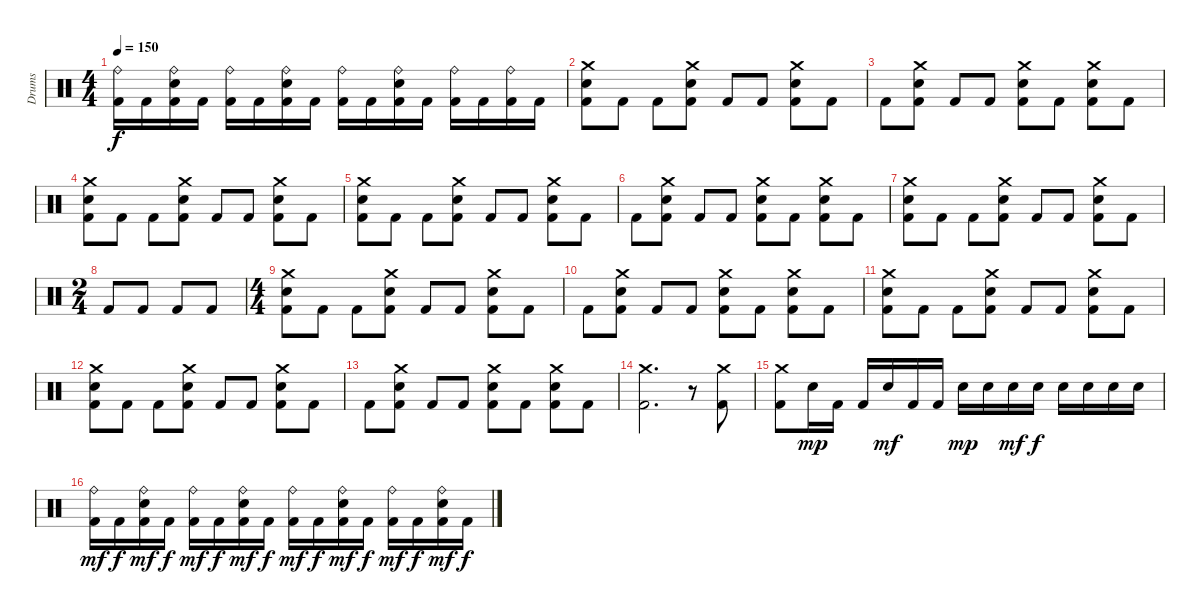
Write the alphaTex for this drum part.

\track ("Drums" "Drums") {instrument percussion}
\staff {score}
\articulation defaults
\ts (4 4)
\tempo 150
\clef neutral
\ks c
("Kick (hit) 2" "Ride (bell)").16{dy f} "Kick (hit) 2".16 ("Kick (hit) 2" "Snare (hit) 2" "Ride (bell)").16 "Kick (hit) 2".16 ("Kick (hit) 2" "Ride (bell)").16 "Kick (hit) 2".16 ("Kick (hit) 2" "Snare (hit) 2" "Ride (bell)").16 "Kick (hit) 2".16 ("Kick (hit) 2" "Ride (bell)").16 "Kick (hit) 2".16 ("Kick (hit) 2" "Snare (hit) 2" "Ride (bell)").16 "Kick (hit) 2".16 ("Kick (hit) 2" "Ride (bell)").16 "Kick (hit) 2".16 ("Kick (hit) 2" "Ride (bell)").16 "Kick (hit) 2".16 |
("Kick (hit) 2" "Snare (hit) 2" "Crash medium (hit)").8 "Kick (hit) 2".8 "Kick (hit) 2".8 ("Kick (hit) 2" "Snare (hit) 2" "Crash medium (hit)").8 "Kick (hit) 2".8 "Kick (hit) 2".8 ("Kick (hit) 2" "Snare (hit) 2" "Crash medium (hit)").8 "Kick (hit) 2".8 |
"Kick (hit) 2".8 ("Kick (hit) 2" "Snare (hit) 2" "Crash medium (hit)").8 "Kick (hit) 2".8 "Kick (hit) 2".8 ("Kick (hit) 2" "Snare (hit) 2" "Crash medium (hit)").8 "Kick (hit) 2".8 ("Kick (hit) 2" "Snare (hit) 2" "Crash medium (hit)").8 "Kick (hit) 2".8 |
("Kick (hit) 2" "Snare (hit) 2" "Crash medium (hit)").8 "Kick (hit) 2".8 "Kick (hit) 2".8 ("Kick (hit) 2" "Snare (hit) 2" "Crash medium (hit)").8 "Kick (hit) 2".8 "Kick (hit) 2".8 ("Kick (hit) 2" "Snare (hit) 2" "Crash medium (hit)").8 "Kick (hit) 2".8 |
("Kick (hit) 2" "Snare (hit) 2" "Crash medium (hit)").8 "Kick (hit) 2".8 "Kick (hit) 2".8 ("Kick (hit) 2" "Snare (hit) 2" "Crash medium (hit)").8 "Kick (hit) 2".8 "Kick (hit) 2".8 ("Kick (hit) 2" "Snare (hit) 2" "Crash medium (hit)").8 "Kick (hit) 2".8 |
"Kick (hit) 2".8 ("Kick (hit) 2" "Snare (hit) 2" "Crash medium (hit)").8 "Kick (hit) 2".8 "Kick (hit) 2".8 ("Kick (hit) 2" "Snare (hit) 2" "Crash medium (hit)").8 "Kick (hit) 2".8 ("Kick (hit) 2" "Snare (hit) 2" "Crash medium (hit)").8 "Kick (hit) 2".8 |
("Kick (hit) 2" "Snare (hit) 2" "Crash medium (hit)").8 "Kick (hit) 2".8 "Kick (hit) 2".8 ("Kick (hit) 2" "Snare (hit) 2" "Crash medium (hit)").8 "Kick (hit) 2".8 "Kick (hit) 2".8 ("Kick (hit) 2" "Snare (hit) 2" "Crash medium (hit)").8 "Kick (hit) 2".8 |
\ts (2 4)
"Kick (hit) 2".8 "Kick (hit) 2".8 "Kick (hit) 2".8 "Kick (hit) 2".8 |
\ts (4 4)
("Kick (hit) 2" "Snare (hit) 2" "Crash medium (hit)").8 "Kick (hit) 2".8 "Kick (hit) 2".8 ("Kick (hit) 2" "Snare (hit) 2" "Crash medium (hit)").8 "Kick (hit) 2".8 "Kick (hit) 2".8 ("Kick (hit) 2" "Snare (hit) 2" "Crash medium (hit)").8 "Kick (hit) 2".8 |
"Kick (hit) 2".8 ("Kick (hit) 2" "Snare (hit) 2" "Crash medium (hit)").8 "Kick (hit) 2".8 "Kick (hit) 2".8 ("Kick (hit) 2" "Snare (hit) 2" "Crash medium (hit)").8 "Kick (hit) 2".8 ("Kick (hit) 2" "Snare (hit) 2" "Crash medium (hit)").8 "Kick (hit) 2".8 |
("Kick (hit) 2" "Snare (hit) 2" "Crash medium (hit)").8 "Kick (hit) 2".8 "Kick (hit) 2".8 ("Kick (hit) 2" "Snare (hit) 2" "Crash medium (hit)").8 "Kick (hit) 2".8 "Kick (hit) 2".8 ("Kick (hit) 2" "Snare (hit) 2" "Crash medium (hit)").8 "Kick (hit) 2".8 |
("Kick (hit) 2" "Snare (hit) 2" "Crash medium (hit)").8 "Kick (hit) 2".8 "Kick (hit) 2".8 ("Kick (hit) 2" "Snare (hit) 2" "Crash medium (hit)").8 "Kick (hit) 2".8 "Kick (hit) 2".8 ("Kick (hit) 2" "Snare (hit) 2" "Crash medium (hit)").8 "Kick (hit) 2".8 |
"Kick (hit) 2".8 ("Kick (hit) 2" "Snare (hit) 2" "Crash medium (hit)").8 "Kick (hit) 2".8 "Kick (hit) 2".8 ("Kick (hit) 2" "Snare (hit) 2" "Crash medium (hit)").8 "Kick (hit) 2".8 ("Kick (hit) 2" "Snare (hit) 2" "Crash medium (hit)").8 "Kick (hit) 2".8 |
("Kick (hit) 2" "Crash medium (hit)").2{d} r.8 ("Kick (hit) 2" "Crash medium (hit)").8 |
("Kick (hit) 2" "Crash medium (hit)").8 "Snare (hit) 2".16{dy mp} "Kick (hit) 2".16 "Kick (hit) 2".16 "Snare (hit) 2".16{dy mf} "Kick (hit) 2".16 "Kick (hit) 2".16 "Snare (hit) 2".16{dy mp} "Snare (hit) 2".16 "Snare (hit) 2".16{dy mf} "Snare (hit) 2".16{dy f} "Snare (hit) 2".16 "Snare (hit) 2".16 "Snare (hit) 2".16 "Snare (hit) 2".16 |
("Kick (hit) 2" "Ride (bell)").16{dy mf} "Kick (hit) 2".16{dy f} ("Kick (hit) 2" "Snare (hit) 2" "Ride (bell)").16{dy mf} "Kick (hit) 2".16{dy f} ("Kick (hit) 2" "Ride (bell)").16{dy mf} "Kick (hit) 2".16{dy f} ("Kick (hit) 2" "Snare (hit) 2" "Ride (bell)").16{dy mf} "Kick (hit) 2".16{dy f} ("Kick (hit) 2" "Ride (bell)").16{dy mf} "Kick (hit) 2".16{dy f} ("Kick (hit) 2" "Snare (hit) 2" "Ride (bell)").16{dy mf} "Kick (hit) 2".16{dy f} ("Kick (hit) 2" "Ride (bell)").16{dy mf} "Kick (hit) 2".16{dy f} ("Kick (hit) 2" "Snare (hit) 2" "Ride (bell)").16{dy mf} "Kick (hit) 2".16{dy f}
